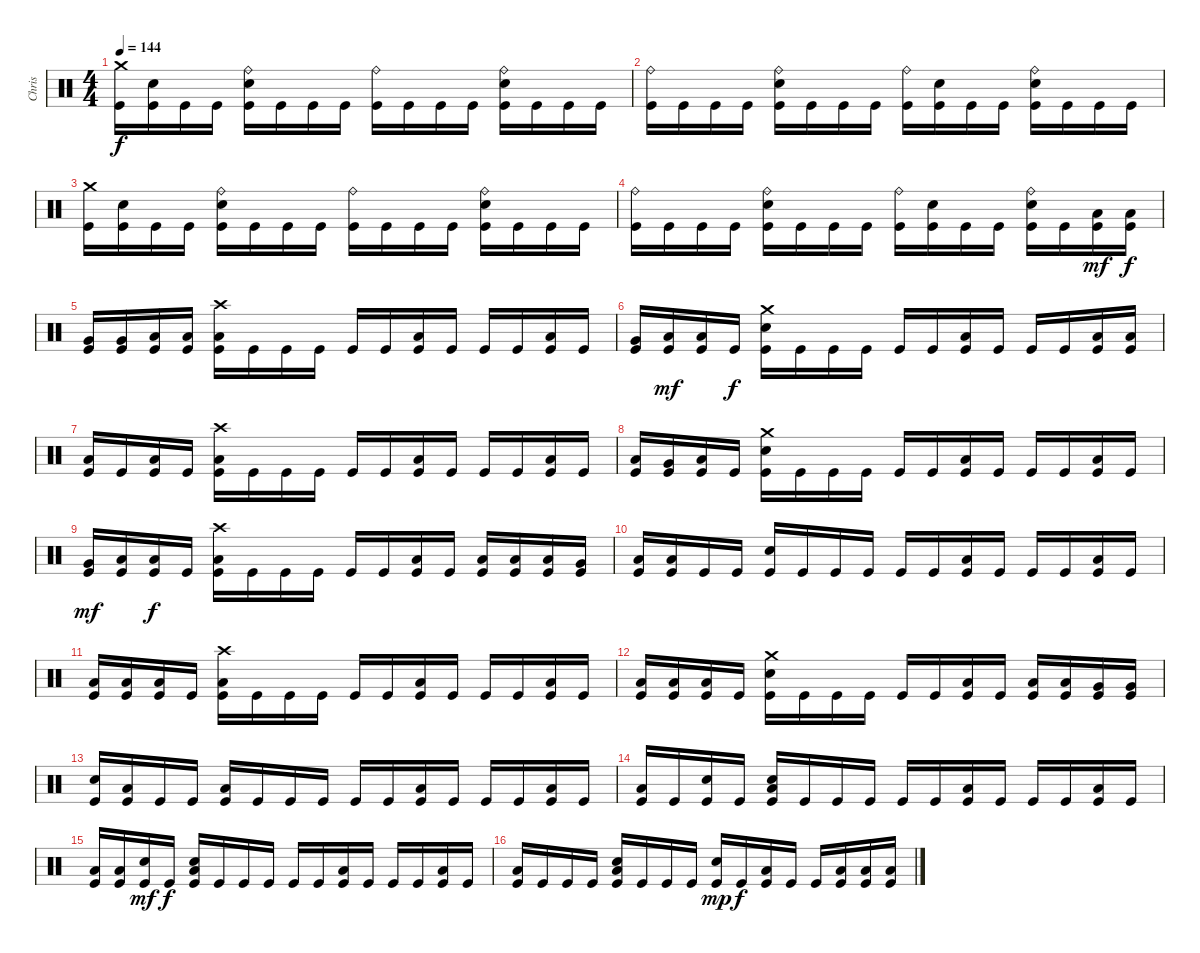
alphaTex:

\track ("Chris" "Chris") {instrument percussion}
\staff {score}
\articulation defaults
\ts (4 4)
\tempo 144
\clef neutral
\ks c
("Crash medium (hit)" "Kick (hit)").16{dy f} ("Electric Snare (hit)" "Kick (hit)").16 "Kick (hit)".16 "Kick (hit)".16 ("Ride (bell)" "Electric Snare (hit)" "Kick (hit)").16 "Kick (hit)".16 "Kick (hit)".16 "Kick (hit)".16 ("Ride (bell)" "Kick (hit)").16 "Kick (hit)".16 "Kick (hit)".16 "Kick (hit)".16 ("Ride (bell)" "Electric Snare (hit)" "Kick (hit)").16 "Kick (hit)".16 "Kick (hit)".16 "Kick (hit)".16 |
("Ride (bell)" "Kick (hit)").16 "Kick (hit)".16 "Kick (hit)".16 "Kick (hit)".16 ("Ride (bell)" "Electric Snare (hit)" "Kick (hit)").16 "Kick (hit)".16 "Kick (hit)".16 "Kick (hit)".16 ("Ride (bell)" "Kick (hit)").16 ("Electric Snare (hit)" "Kick (hit)").16 "Kick (hit)".16 "Kick (hit)".16 ("Ride (bell)" "Electric Snare (hit)" "Kick (hit)").16 "Kick (hit)".16 "Kick (hit)".16 "Kick (hit)".16 |
("Crash medium (hit)" "Kick (hit)").16 ("Electric Snare (hit)" "Kick (hit)").16 "Kick (hit)".16 "Kick (hit)".16 ("Ride (bell)" "Electric Snare (hit)" "Kick (hit)").16 "Kick (hit)".16 "Kick (hit)".16 "Kick (hit)".16 ("Ride (bell)" "Kick (hit)").16 "Kick (hit)".16 "Kick (hit)".16 "Kick (hit)".16 ("Ride (bell)" "Electric Snare (hit)" "Kick (hit)").16 "Kick (hit)".16 "Kick (hit)".16 "Kick (hit)".16 |
("Ride (bell)" "Kick (hit)").16 "Kick (hit)".16 "Kick (hit)".16 "Kick (hit)".16 ("Ride (bell)" "Electric Snare (hit)" "Kick (hit)").16 "Kick (hit)".16 "Kick (hit)".16 "Kick (hit)".16 ("Ride (bell)" "Kick (hit)").16 ("Electric Snare (hit)" "Kick (hit)").16 "Kick (hit)".16 "Kick (hit)".16 ("Ride (bell)" "Electric Snare (hit)" "Kick (hit)").16 "Kick (hit)".16 ("Low Tom (hit)" "Kick (hit)").16{dy mf} ("Low Tom (hit)" "Kick (hit)").16{dy f} |
("Very Low Tom (hit)" "Kick (hit)").16 ("Very Low Tom (hit)" "Kick (hit)").16 ("Low Floor Tom (hit)" "Kick (hit)").16 ("Low Floor Tom (hit)" "Kick (hit)").16 ("Crash high (hit)" "Low Floor Tom (hit)" "Kick (hit)").16 "Kick (hit)".16 "Kick (hit)".16 "Kick (hit)".16 "Kick (hit)".16 "Kick (hit)".16 ("Low Floor Tom (hit)" "Kick (hit)").16 "Kick (hit)".16 "Kick (hit)".16 "Kick (hit)".16 ("Low Floor Tom (hit)" "Kick (hit)").16 "Kick (hit)".16 |
("Very Low Tom (hit)" "Kick (hit)").16 ("Low Floor Tom (hit)" "Kick (hit)").16{dy mf} ("Low Floor Tom (hit)" "Kick (hit)").16 "Kick (hit)".16{dy f} ("Crash medium (hit)" "Electric Snare (hit)" "Kick (hit)").16 "Kick (hit)".16 "Kick (hit)".16 "Kick (hit)".16 "Kick (hit)".16 "Kick (hit)".16 ("Low Floor Tom (hit)" "Kick (hit)").16 "Kick (hit)".16 "Kick (hit)".16 "Kick (hit)".16 ("Low Floor Tom (hit)" "Kick (hit)").16 ("Low Floor Tom (hit)" "Kick (hit)").16 |
("Low Floor Tom (hit)" "Kick (hit)").16 "Kick (hit)".16 ("Low Floor Tom (hit)" "Kick (hit)").16 "Kick (hit)".16 ("Crash high (hit)" "Low Floor Tom (hit)" "Kick (hit)").16 "Kick (hit)".16 "Kick (hit)".16 "Kick (hit)".16 "Kick (hit)".16 "Kick (hit)".16 ("Low Floor Tom (hit)" "Kick (hit)").16 "Kick (hit)".16 "Kick (hit)".16 "Kick (hit)".16 ("Low Floor Tom (hit)" "Kick (hit)").16 "Kick (hit)".16 |
("Low Tom (hit)" "Kick (hit)").16 ("Very Low Tom (hit)" "Kick (hit)").16 ("Low Floor Tom (hit)" "Kick (hit)").16 "Kick (hit)".16 ("Crash medium (hit)" "Electric Snare (hit)" "Kick (hit)").16 "Kick (hit)".16 "Kick (hit)".16 "Kick (hit)".16 "Kick (hit)".16 "Kick (hit)".16 ("Low Floor Tom (hit)" "Kick (hit)").16 "Kick (hit)".16 "Kick (hit)".16 "Kick (hit)".16 ("Low Floor Tom (hit)" "Kick (hit)").16 "Kick (hit)".16 |
("Very Low Tom (hit)" "Kick (hit)").16{dy mf} ("Low Floor Tom (hit)" "Kick (hit)").16 ("Low Floor Tom (hit)" "Kick (hit)").16{dy f} "Kick (hit)".16 ("Crash high (hit)" "Low Floor Tom (hit)" "Kick (hit)").16 "Kick (hit)".16 "Kick (hit)".16 "Kick (hit)".16 "Kick (hit)".16 "Kick (hit)".16 ("Low Floor Tom (hit)" "Kick (hit)").16 "Kick (hit)".16 ("Low Floor Tom (hit)" "Kick (hit)").16 ("Low Floor Tom (hit)" "Kick (hit)").16 ("Low Floor Tom (hit)" "Kick (hit)").16 ("Very Low Tom (hit)" "Kick (hit)").16 |
("Low Floor Tom (hit)" "Kick (hit)").16 ("Low Floor Tom (hit)" "Kick (hit)").16 "Kick (hit)".16 "Kick (hit)".16 ("Electric Snare (hit)" "Kick (hit)").16 "Kick (hit)".16 "Kick (hit)".16 "Kick (hit)".16 "Kick (hit)".16 "Kick (hit)".16 ("Low Floor Tom (hit)" "Kick (hit)").16 "Kick (hit)".16 "Kick (hit)".16 "Kick (hit)".16 ("Low Floor Tom (hit)" "Kick (hit)").16 "Kick (hit)".16 |
("Low Floor Tom (hit)" "Kick (hit)").16 ("Low Floor Tom (hit)" "Kick (hit)").16 ("Low Floor Tom (hit)" "Kick (hit)").16 "Kick (hit)".16 ("Crash high (hit)" "Low Floor Tom (hit)" "Kick (hit)").16 "Kick (hit)".16 "Kick (hit)".16 "Kick (hit)".16 "Kick (hit)".16 "Kick (hit)".16 ("Low Floor Tom (hit)" "Kick (hit)").16 "Kick (hit)".16 "Kick (hit)".16 "Kick (hit)".16 ("Low Floor Tom (hit)" "Kick (hit)").16 "Kick (hit)".16 |
("Low Floor Tom (hit)" "Kick (hit)").16 ("Low Floor Tom (hit)" "Kick (hit)").16 ("Low Floor Tom (hit)" "Kick (hit)").16 "Kick (hit)".16 ("Crash medium (hit)" "Electric Snare (hit)" "Kick (hit)").16 "Kick (hit)".16 "Kick (hit)".16 "Kick (hit)".16 "Kick (hit)".16 "Kick (hit)".16 ("Low Floor Tom (hit)" "Kick (hit)").16 "Kick (hit)".16 ("Low Tom (hit)" "Kick (hit)").16 ("Low Tom (hit)" "Kick (hit)").16 ("Very Low Tom (hit)" "Kick (hit)").16 ("Very Low Tom (hit)" "Kick (hit)").16 |
("Electric Snare (hit)" "Kick (hit)").16 ("Low Floor Tom (hit)" "Kick (hit)").16 "Kick (hit)".16 "Kick (hit)".16 ("Low Floor Tom (hit)" "Kick (hit)").16 "Kick (hit)".16 "Kick (hit)".16 "Kick (hit)".16 "Kick (hit)".16 "Kick (hit)".16 ("Low Floor Tom (hit)" "Kick (hit)").16 "Kick (hit)".16 "Kick (hit)".16 "Kick (hit)".16 ("Low Floor Tom (hit)" "Kick (hit)").16 "Kick (hit)".16 |
("Low Floor Tom (hit)" "Kick (hit)").16 "Kick (hit)".16 ("Electric Snare (hit)" "Kick (hit)").16 "Kick (hit)".16 ("Electric Snare (hit)" "Low Floor Tom (hit)" "Kick (hit)").16 "Kick (hit)".16 "Kick (hit)".16 "Kick (hit)".16 "Kick (hit)".16 "Kick (hit)".16 ("Low Floor Tom (hit)" "Kick (hit)").16 "Kick (hit)".16 "Kick (hit)".16 "Kick (hit)".16 ("Low Floor Tom (hit)" "Kick (hit)").16 "Kick (hit)".16 |
("Low Floor Tom (hit)" "Kick (hit)").16 ("Low Floor Tom (hit)" "Kick (hit)").16 ("Electric Snare (hit)" "Kick (hit)").16{dy mf} "Kick (hit)".16{dy f} ("Electric Snare (hit)" "Low Floor Tom (hit)" "Kick (hit)").16 "Kick (hit)".16 "Kick (hit)".16 "Kick (hit)".16 "Kick (hit)".16 "Kick (hit)".16 ("Low Floor Tom (hit)" "Kick (hit)").16 "Kick (hit)".16 "Kick (hit)".16 "Kick (hit)".16 ("Low Floor Tom (hit)" "Kick (hit)").16 "Kick (hit)".16 |
("Low Floor Tom (hit)" "Kick (hit)").16 "Kick (hit)".16 "Kick (hit)".16 "Kick (hit)".16 ("Electric Snare (hit)" "Low Floor Tom (hit)" "Kick (hit)").16 "Kick (hit)".16 "Kick (hit)".16 "Kick (hit)".16 ("Electric Snare (hit)" "Kick (hit)").16{dy mp} "Kick (hit)".16{dy f} ("Low Floor Tom (hit)" "Kick (hit)").16 "Kick (hit)".16 "Kick (hit)".16 ("Low Floor Tom (hit)" "Kick (hit)").16 ("Low Floor Tom (hit)" "Kick (hit)").16 ("Low Floor Tom (hit)" "Kick (hit)").16
